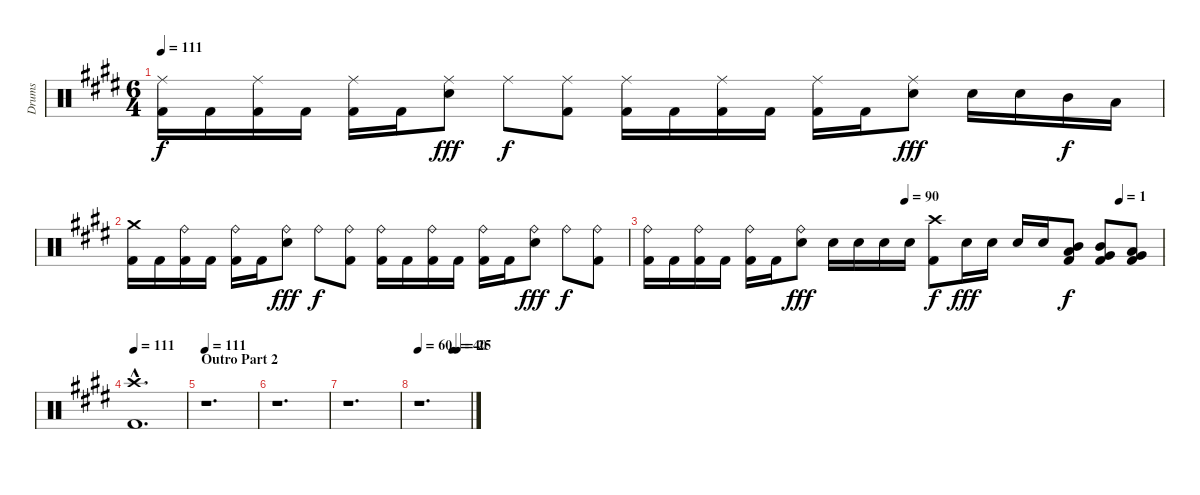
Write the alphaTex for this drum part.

\track ("Drums" "Drums") {instrument percussion}
\staff {score}
\articulation defaults
\ts (6 4)
\tempo 111
\clef neutral
\ks c#minor
("Ride (middle)" "Kick (hit) 2").16{dy f} "Kick (hit) 2".16 ("Ride (middle)" "Kick (hit) 2").16 "Kick (hit) 2".16 ("Ride (middle)" "Kick (hit) 2").16 "Kick (hit) 2".16 ("Ride (middle)" "Snare (hit) 2").8{dy fff} "Ride (middle)".8{dy f} ("Ride (middle)" "Kick (hit) 2").8 ("Ride (middle)" "Kick (hit) 2").16 "Kick (hit) 2".16 ("Ride (middle)" "Kick (hit) 2").16 "Kick (hit) 2".16 ("Ride (middle)" "Kick (hit) 2").16 "Kick (hit) 2".16 ("Ride (middle)" "Snare (hit) 2").8{dy fff} "Snare (hit) 2".16 "Snare (hit) 2".16 "Mid Tom (hit)".16{dy f} "Low Tom (hit)".16 |
("Crash medium (hit)" "Kick (hit) 2").16 "Kick (hit) 2".16 ("Ride (bell)" "Kick (hit) 2").16 "Kick (hit) 2".16 ("Ride (bell)" "Kick (hit) 2").16 "Kick (hit) 2".16 ("Ride (bell)" "Snare (hit) 2").8{dy fff} "Ride (bell)".8{dy f} ("Ride (bell)" "Kick (hit) 2").8 ("Ride (bell)" "Kick (hit) 2").16 "Kick (hit) 2".16 ("Ride (bell)" "Kick (hit) 2").16 "Kick (hit) 2".16 ("Ride (bell)" "Kick (hit) 2").16 "Kick (hit) 2".16 ("Ride (bell)" "Snare (hit) 2").8{dy fff} "Ride (bell)".8{dy f} ("Ride (bell)" "Kick (hit) 2").8 |
\tempo (90 0.5)
\tempo (1 0.9166666666666666)
("Ride (bell)" "Kick (hit) 2").16 "Kick (hit) 2".16 ("Ride (bell)" "Kick (hit) 2").16 "Kick (hit) 2".16 ("Ride (bell)" "Kick (hit) 2").16 "Kick (hit) 2".16 ("Ride (bell)" "Snare (hit) 2").8{dy fff} "Snare (hit) 2".16 "Snare (hit) 2".16 "Snare (hit) 2".16 "Snare (hit) 2".16 ("Crash high (hit)" "Kick (hit) 2").8{dy f} "Snare (hit) 2".16{dy fff} "Snare (hit) 2".16 "Snare (hit) 2".16 "Snare (hit) 2".16 ("Mid Tom (hit)" "Low Tom (hit)" "Kick (hit) 2").8{dy f} ("Mid Tom (hit)" "Very Low Tom (hit)" "Kick (hit) 2").8 ("Low Tom (hit)" "Very Low Tom (hit)" "Kick (hit) 2").8 |
\tempo 111
("Crash high (hit)"{hac} "Kick (hit) 2"{hac}).1{d} |
\section ("" "Outro Part 2")
\tempo 111
r.1{d} |
r.1{d} |
r.1{d} |
\tempo 60
\tempo (40 0.6666666666666666)
\tempo (25 0.75)
r.1{d}
